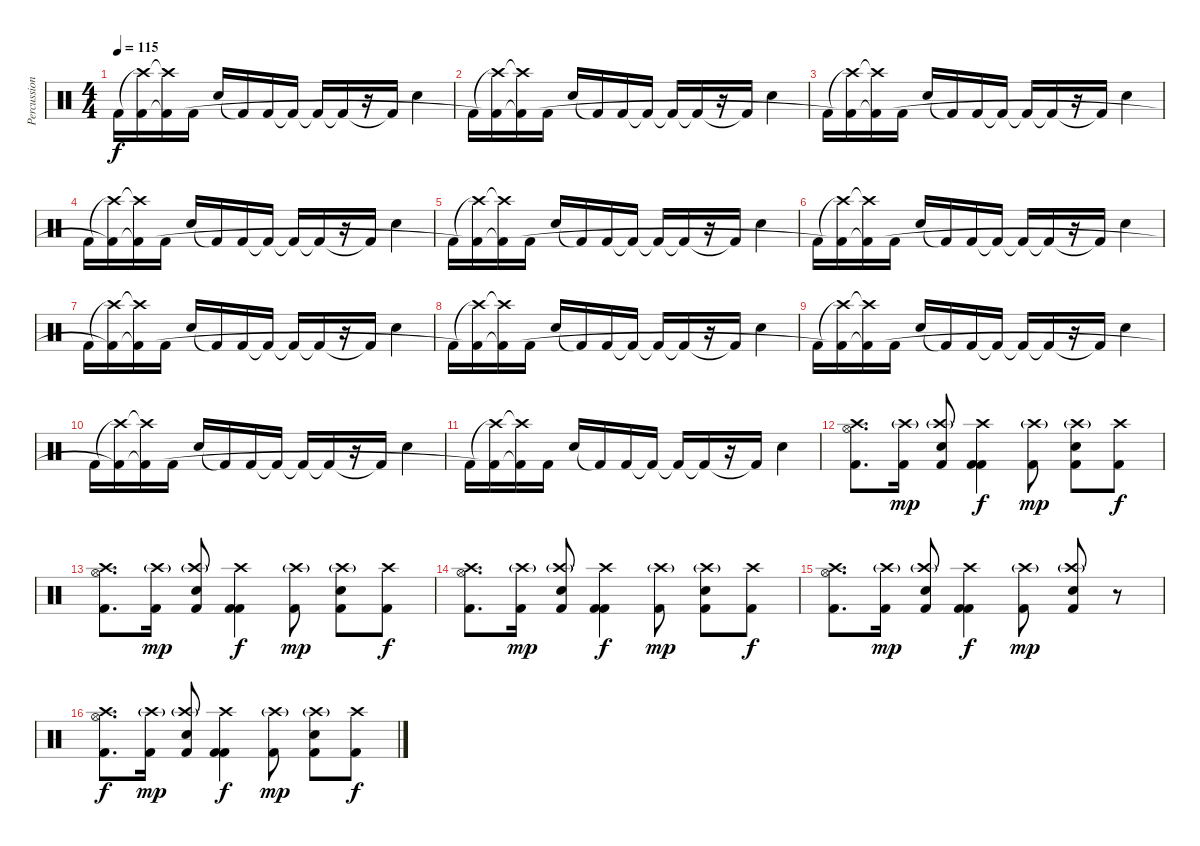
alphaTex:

\track ("Percussion" "Percussion") {instrument percussion}
\staff {score}
\articulation defaults
\ts (4 4)
\tempo 115
\clef neutral
\ks c "Kick (hit) 2".16{dy f}
("Crash high (hit)"{t} "Kick (hit) 2"{t}).16 ("Crash high (hit)"{t} "Kick (hit) 2"{t}).16 "Kick (hit) 2".16 "Snare (hit) 2".16 "Kick (hit) 2"{t}.16 "Kick (hit) 2".16 "Kick (hit) 2"{t}.16 "Kick (hit) 2"{t}.16 "Kick (hit) 2"{t}.16 r.16 "Kick (hit) 2"{t}.16 "Snare (hit) 2".4 |
"Kick (hit) 2".16 ("Crash high (hit)"{t} "Kick (hit) 2"{t}).16 ("Crash high (hit)"{t} "Kick (hit) 2"{t}).16 "Kick (hit) 2".16 "Snare (hit) 2".16 "Kick (hit) 2"{t}.16 "Kick (hit) 2".16 "Kick (hit) 2"{t}.16 "Kick (hit) 2"{t}.16 "Kick (hit) 2"{t}.16 r.16 "Kick (hit) 2"{t}.16 "Snare (hit) 2".4 |
"Kick (hit) 2".16 ("Crash high (hit)"{t} "Kick (hit) 2"{t}).16 ("Crash high (hit)"{t} "Kick (hit) 2"{t}).16 "Kick (hit) 2".16 "Snare (hit) 2".16 "Kick (hit) 2"{t}.16 "Kick (hit) 2".16 "Kick (hit) 2"{t}.16 "Kick (hit) 2"{t}.16 "Kick (hit) 2"{t}.16 r.16 "Kick (hit) 2"{t}.16 "Snare (hit) 2".4 |
"Kick (hit) 2".16 ("Crash high (hit)"{t} "Kick (hit) 2"{t}).16 ("Crash high (hit)"{t} "Kick (hit) 2"{t}).16 "Kick (hit) 2".16 "Snare (hit) 2".16 "Kick (hit) 2"{t}.16 "Kick (hit) 2".16 "Kick (hit) 2"{t}.16 "Kick (hit) 2"{t}.16 "Kick (hit) 2"{t}.16 r.16 "Kick (hit) 2"{t}.16 "Snare (hit) 2".4 |
"Kick (hit) 2".16 ("Crash high (hit)"{t} "Kick (hit) 2"{t}).16 ("Crash high (hit)"{t} "Kick (hit) 2"{t}).16 "Kick (hit) 2".16 "Snare (hit) 2".16 "Kick (hit) 2"{t}.16 "Kick (hit) 2".16 "Kick (hit) 2"{t}.16 "Kick (hit) 2"{t}.16 "Kick (hit) 2"{t}.16 r.16 "Kick (hit) 2"{t}.16 "Snare (hit) 2".4 |
"Kick (hit) 2".16 ("Crash high (hit)"{t} "Kick (hit) 2"{t}).16 ("Crash high (hit)"{t} "Kick (hit) 2"{t}).16 "Kick (hit) 2".16 "Snare (hit) 2".16 "Kick (hit) 2"{t}.16 "Kick (hit) 2".16 "Kick (hit) 2"{t}.16 "Kick (hit) 2"{t}.16 "Kick (hit) 2"{t}.16 r.16 "Kick (hit) 2"{t}.16 "Snare (hit) 2".4 |
"Kick (hit) 2".16 ("Crash high (hit)"{t} "Kick (hit) 2"{t}).16 ("Crash high (hit)"{t} "Kick (hit) 2"{t}).16 "Kick (hit) 2".16 "Snare (hit) 2".16 "Kick (hit) 2"{t}.16 "Kick (hit) 2".16 "Kick (hit) 2"{t}.16 "Kick (hit) 2"{t}.16 "Kick (hit) 2"{t}.16 r.16 "Kick (hit) 2"{t}.16 "Snare (hit) 2".4 |
"Kick (hit) 2".16 ("Crash high (hit)"{t} "Kick (hit) 2"{t}).16 ("Crash high (hit)"{t} "Kick (hit) 2"{t}).16 "Kick (hit) 2".16 "Snare (hit) 2".16 "Kick (hit) 2"{t}.16 "Kick (hit) 2".16 "Kick (hit) 2"{t}.16 "Kick (hit) 2"{t}.16 "Kick (hit) 2"{t}.16 r.16 "Kick (hit) 2"{t}.16 "Snare (hit) 2".4 |
"Kick (hit) 2".16 ("Crash high (hit)"{t} "Kick (hit) 2"{t}).16 ("Crash high (hit)"{t} "Kick (hit) 2"{t}).16 "Kick (hit) 2".16 "Snare (hit) 2".16 "Kick (hit) 2"{t}.16 "Kick (hit) 2".16 "Kick (hit) 2"{t}.16 "Kick (hit) 2"{t}.16 "Kick (hit) 2"{t}.16 r.16 "Kick (hit) 2"{t}.16 "Snare (hit) 2".4 |
"Kick (hit) 2".16 ("Crash high (hit)"{t} "Kick (hit) 2"{t}).16 ("Crash high (hit)"{t} "Kick (hit) 2"{t}).16 "Kick (hit) 2".16 "Snare (hit) 2".16 "Kick (hit) 2"{t}.16 "Kick (hit) 2".16 "Kick (hit) 2"{t}.16 "Kick (hit) 2"{t}.16 "Kick (hit) 2"{t}.16 r.16 "Kick (hit) 2"{t}.16 "Snare (hit) 2".4 |
"Kick (hit) 2".16 ("Crash high (hit)"{t} "Kick (hit) 2"{t}).16 ("Crash high (hit)"{t} "Kick (hit) 2"{t}).16 "Kick (hit) 2".16 "Snare (hit) 2".16 "Kick (hit) 2"{t}.16 "Kick (hit) 2".16 "Kick (hit) 2"{t}.16 "Kick (hit) 2"{t}.16 "Kick (hit) 2"{t}.16 r.16 "Kick (hit) 2"{t}.16 "Snare (hit) 2".4 |
("Crash high (hit)" "Hi-Hat (open)" "Kick (hit) 2").8{d} ("Crash high (hit)"{g} "Kick (hit) 2").16{dy mp} ("Crash high (hit)"{g} "Snare (hit) 2" "Kick (hit) 2").8 ("Crash high (hit)" "Kick (hit) 2" "Kick (hit) 2").4{dy f} ("Crash high (hit)"{g} "Kick (hit) 2").8{dy mp} ("Crash high (hit)"{g} "Snare (hit) 2" "Kick (hit) 2").8 ("Crash high (hit)" "Kick (hit) 2").8{dy f} |
("Crash high (hit)" "Hi-Hat (open)" "Kick (hit) 2").8{d} ("Crash high (hit)"{g} "Kick (hit) 2").16{dy mp} ("Crash high (hit)"{g} "Snare (hit) 2" "Kick (hit) 2").8 ("Crash high (hit)" "Kick (hit) 2" "Kick (hit) 2").4{dy f} ("Crash high (hit)"{g} "Kick (hit) 2").8{dy mp} ("Crash high (hit)"{g} "Snare (hit) 2" "Kick (hit) 2").8 ("Crash high (hit)" "Kick (hit) 2").8{dy f} |
("Crash high (hit)" "Hi-Hat (open)" "Kick (hit) 2").8{d} ("Crash high (hit)"{g} "Kick (hit) 2").16{dy mp} ("Crash high (hit)"{g} "Snare (hit) 2" "Kick (hit) 2").8 ("Crash high (hit)" "Kick (hit) 2" "Kick (hit) 2").4{dy f} ("Crash high (hit)"{g} "Kick (hit) 2").8{dy mp} ("Crash high (hit)"{g} "Snare (hit) 2" "Kick (hit) 2").8 ("Crash high (hit)" "Kick (hit) 2").8{dy f} |
("Crash high (hit)" "Hi-Hat (open)" "Kick (hit) 2").8{d} ("Crash high (hit)"{g} "Kick (hit) 2").16{dy mp} ("Crash high (hit)"{g} "Snare (hit) 2" "Kick (hit) 2").8 ("Crash high (hit)" "Kick (hit) 2" "Kick (hit) 2").4{dy f} ("Crash high (hit)"{g} "Kick (hit) 2").8{dy mp} ("Crash high (hit)"{g} "Snare (hit) 2" "Kick (hit) 2").8 r.8 |
("Crash high (hit)" "Hi-Hat (open)" "Kick (hit) 2").8{d dy f} ("Crash high (hit)"{g} "Kick (hit) 2").16{dy mp} ("Crash high (hit)"{g} "Snare (hit) 2" "Kick (hit) 2").8 ("Crash high (hit)" "Kick (hit) 2" "Kick (hit) 2").4{dy f} ("Crash high (hit)"{g} "Kick (hit) 2").8{dy mp} ("Crash high (hit)"{g} "Snare (hit) 2" "Kick (hit) 2").8 ("Crash high (hit)" "Kick (hit) 2").8{dy f}
